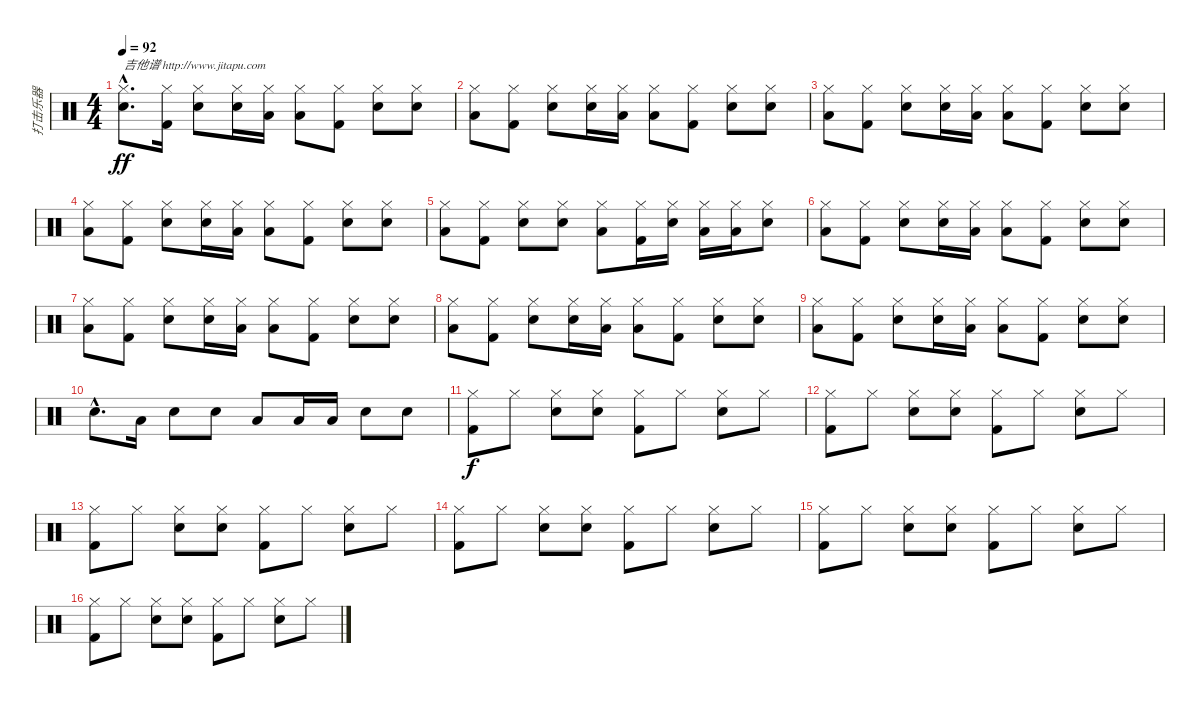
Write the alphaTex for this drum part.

\track ("打击乐器" "打击乐器") {instrument percussion}
\staff {score}
\articulation defaults
\ts (4 4)
\tempo 92
\clef neutral
\ks c
("Hi-Hat (closed)"{hac} "Electric Snare (hit)"{hac}).8{d txt "吉他谱 http://www.jitapu.com" dy ff} ("Hi-Hat (closed)" "Kick (hit) 2").16 ("Hi-Hat (closed)" "Electric Snare (hit)").8 ("Hi-Hat (closed)" "Electric Snare (hit)").16 ("Hi-Hat (closed)" "Low Tom (hit)").16 ("Hi-Hat (closed)" "Low Tom (hit)").8 ("Hi-Hat (closed)" "Kick (hit) 2").8 ("Hi-Hat (closed)" "Electric Snare (hit)").8 ("Hi-Hat (closed)" "Electric Snare (hit)").8 |
("Hi-Hat (closed)" "Low Tom (hit)").8 ("Hi-Hat (closed)" "Kick (hit) 2").8 ("Hi-Hat (closed)" "Electric Snare (hit)").8 ("Hi-Hat (closed)" "Electric Snare (hit)").16 ("Hi-Hat (closed)" "Low Tom (hit)").16 ("Hi-Hat (closed)" "Low Tom (hit)").8 ("Hi-Hat (closed)" "Kick (hit) 2").8 ("Hi-Hat (closed)" "Electric Snare (hit)").8 ("Hi-Hat (closed)" "Electric Snare (hit)").8 |
("Hi-Hat (closed)" "Low Tom (hit)").8 ("Hi-Hat (closed)" "Kick (hit) 2").8 ("Hi-Hat (closed)" "Electric Snare (hit)").8 ("Hi-Hat (closed)" "Electric Snare (hit)").16 ("Hi-Hat (closed)" "Low Tom (hit)").16 ("Hi-Hat (closed)" "Low Tom (hit)").8 ("Hi-Hat (closed)" "Kick (hit) 2").8 ("Hi-Hat (closed)" "Electric Snare (hit)").8 ("Hi-Hat (closed)" "Electric Snare (hit)").8 |
("Hi-Hat (closed)" "Low Tom (hit)").8 ("Hi-Hat (closed)" "Kick (hit) 2").8 ("Hi-Hat (closed)" "Electric Snare (hit)").8 ("Hi-Hat (closed)" "Electric Snare (hit)").16 ("Hi-Hat (closed)" "Low Tom (hit)").16 ("Hi-Hat (closed)" "Low Tom (hit)").8 ("Hi-Hat (closed)" "Kick (hit) 2").8 ("Hi-Hat (closed)" "Electric Snare (hit)").8 ("Hi-Hat (closed)" "Electric Snare (hit)").8 |
("Hi-Hat (closed)" "Low Tom (hit)").8 ("Hi-Hat (closed)" "Kick (hit) 2").8 ("Hi-Hat (closed)" "Electric Snare (hit)").8 ("Hi-Hat (closed)" "Electric Snare (hit)").8 ("Hi-Hat (closed)" "Low Tom (hit)").8 ("Hi-Hat (closed)" "Kick (hit) 2").16 ("Hi-Hat (closed)" "Electric Snare (hit)").16 ("Hi-Hat (closed)" "Low Tom (hit)").16 ("Hi-Hat (closed)" "Low Tom (hit)").16 ("Hi-Hat (closed)" "Electric Snare (hit)").8 |
("Hi-Hat (closed)" "Low Tom (hit)").8 ("Hi-Hat (closed)" "Kick (hit) 2").8 ("Hi-Hat (closed)" "Electric Snare (hit)").8 ("Hi-Hat (closed)" "Electric Snare (hit)").16 ("Hi-Hat (closed)" "Low Tom (hit)").16 ("Hi-Hat (closed)" "Low Tom (hit)").8 ("Hi-Hat (closed)" "Kick (hit) 2").8 ("Hi-Hat (closed)" "Electric Snare (hit)").8 ("Hi-Hat (closed)" "Electric Snare (hit)").8 |
("Hi-Hat (closed)" "Low Tom (hit)").8 ("Hi-Hat (closed)" "Kick (hit) 2").8 ("Hi-Hat (closed)" "Electric Snare (hit)").8 ("Hi-Hat (closed)" "Electric Snare (hit)").16 ("Hi-Hat (closed)" "Low Tom (hit)").16 ("Hi-Hat (closed)" "Low Tom (hit)").8 ("Hi-Hat (closed)" "Kick (hit) 2").8 ("Hi-Hat (closed)" "Electric Snare (hit)").8 ("Hi-Hat (closed)" "Electric Snare (hit)").8 |
("Hi-Hat (closed)" "Low Tom (hit)").8 ("Hi-Hat (closed)" "Kick (hit) 2").8 ("Hi-Hat (closed)" "Electric Snare (hit)").8 ("Hi-Hat (closed)" "Electric Snare (hit)").16 ("Hi-Hat (closed)" "Low Tom (hit)").16 ("Hi-Hat (closed)" "Low Tom (hit)").8 ("Hi-Hat (closed)" "Kick (hit) 2").8 ("Hi-Hat (closed)" "Electric Snare (hit)").8 ("Hi-Hat (closed)" "Electric Snare (hit)").8 |
("Hi-Hat (closed)" "Low Tom (hit)").8 ("Hi-Hat (closed)" "Kick (hit) 2").8 ("Hi-Hat (closed)" "Electric Snare (hit)").8 ("Hi-Hat (closed)" "Electric Snare (hit)").16 ("Hi-Hat (closed)" "Low Tom (hit)").16 ("Hi-Hat (closed)" "Low Tom (hit)").8 ("Hi-Hat (closed)" "Kick (hit) 2").8 ("Hi-Hat (closed)" "Electric Snare (hit)").8 ("Hi-Hat (closed)" "Electric Snare (hit)").8 |
"Electric Snare (hit)"{hac}.8{d} "Low Tom (hit)".16 "Electric Snare (hit)".8 "Electric Snare (hit)".8 "Low Tom (hit)".8 "Low Tom (hit)".16 "Low Tom (hit)".16 "Electric Snare (hit)".8 "Electric Snare (hit)".8 |
("Hi-Hat (closed)" "Kick (hit) 2").8{dy f} "Hi-Hat (closed)".8 ("Hi-Hat (closed)" "Electric Snare (hit)").8 ("Hi-Hat (closed)" "Electric Snare (hit)").8 ("Hi-Hat (closed)" "Kick (hit) 2").8 "Hi-Hat (closed)".8 ("Hi-Hat (closed)" "Electric Snare (hit)").8 "Hi-Hat (closed)".8 |
("Hi-Hat (closed)" "Kick (hit) 2").8 "Hi-Hat (closed)".8 ("Hi-Hat (closed)" "Electric Snare (hit)").8 ("Hi-Hat (closed)" "Electric Snare (hit)").8 ("Hi-Hat (closed)" "Kick (hit) 2").8 "Hi-Hat (closed)".8 ("Hi-Hat (closed)" "Electric Snare (hit)").8 "Hi-Hat (closed)".8 |
("Hi-Hat (closed)" "Kick (hit) 2").8 "Hi-Hat (closed)".8 ("Hi-Hat (closed)" "Electric Snare (hit)").8 ("Hi-Hat (closed)" "Electric Snare (hit)").8 ("Hi-Hat (closed)" "Kick (hit) 2").8 "Hi-Hat (closed)".8 ("Hi-Hat (closed)" "Electric Snare (hit)").8 "Hi-Hat (closed)".8 |
("Hi-Hat (closed)" "Kick (hit) 2").8 "Hi-Hat (closed)".8 ("Hi-Hat (closed)" "Electric Snare (hit)").8 ("Hi-Hat (closed)" "Electric Snare (hit)").8 ("Hi-Hat (closed)" "Kick (hit) 2").8 "Hi-Hat (closed)".8 ("Hi-Hat (closed)" "Electric Snare (hit)").8 "Hi-Hat (closed)".8 |
("Hi-Hat (closed)" "Kick (hit) 2").8 "Hi-Hat (closed)".8 ("Hi-Hat (closed)" "Electric Snare (hit)").8 ("Hi-Hat (closed)" "Electric Snare (hit)").8 ("Hi-Hat (closed)" "Kick (hit) 2").8 "Hi-Hat (closed)".8 ("Hi-Hat (closed)" "Electric Snare (hit)").8 "Hi-Hat (closed)".8 |
("Hi-Hat (closed)" "Kick (hit) 2").8 "Hi-Hat (closed)".8 ("Hi-Hat (closed)" "Electric Snare (hit)").8 ("Hi-Hat (closed)" "Electric Snare (hit)").8 ("Hi-Hat (closed)" "Kick (hit) 2").8 "Hi-Hat (closed)".8 ("Hi-Hat (closed)" "Electric Snare (hit)").8 "Hi-Hat (closed)".8
